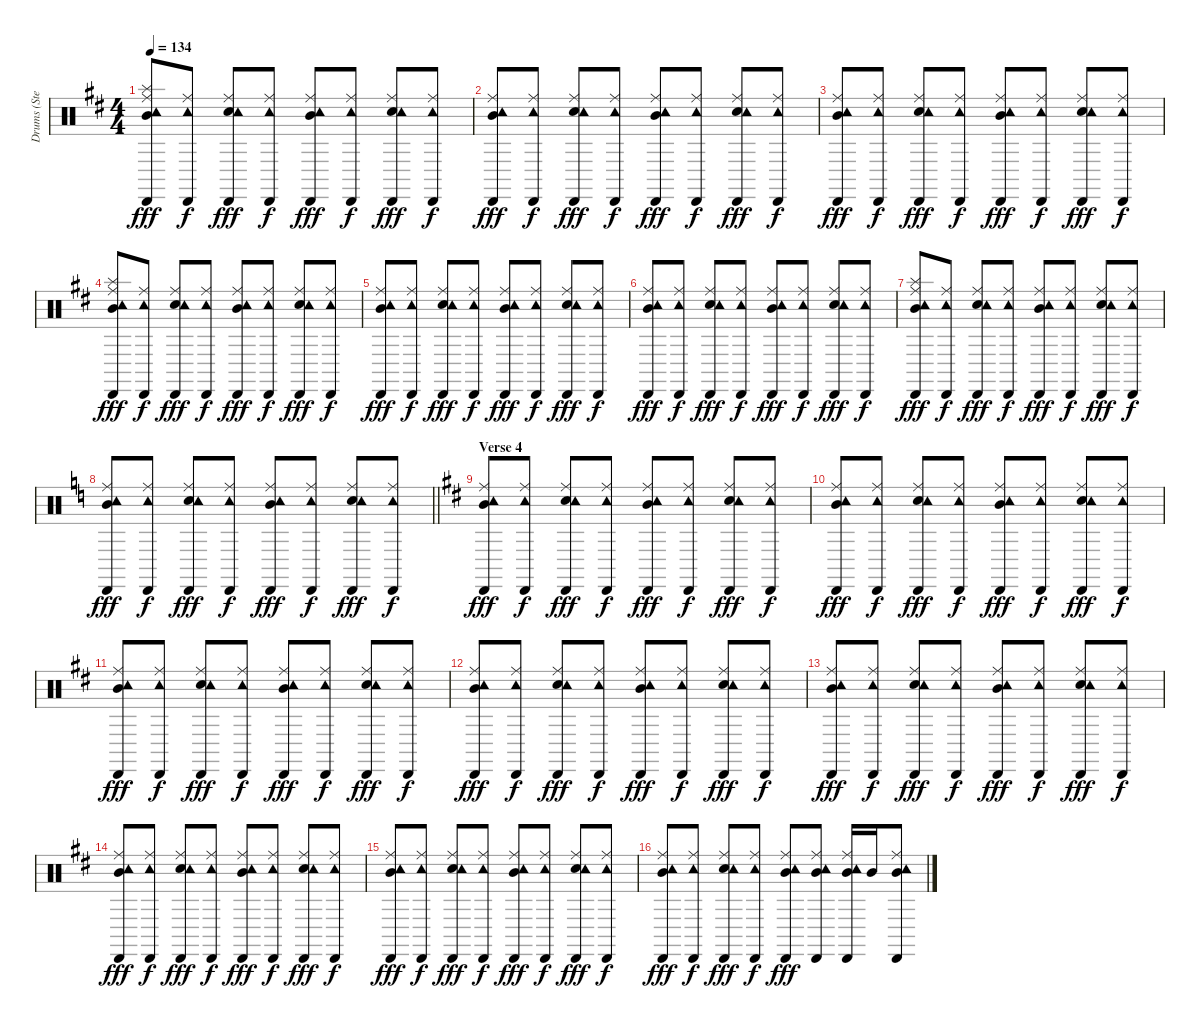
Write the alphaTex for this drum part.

\track ("Drums (Steven)" "Drums (Ste") {instrument percussion}
\staff {score}
\articulation defaults
\ts (4 4)
\tempo 134
\clef neutral
\ks d
("Mid Tom (hit)" "Splash (hit)" "Ride (middle)" "Tambourine (hit)" "Cabasa (hit)").8{dy fff} ("Ride (middle)" "Tambourine (hit)" "Cabasa (hit)").8{dy f} ("Electric Snare (hit)" "Ride (middle)" "Tambourine (hit)" "Cabasa (hit)").8{dy fff} ("Ride (middle)" "Tambourine (hit)" "Cabasa (hit)").8{dy f} ("Mid Tom (hit)" "Ride (middle)" "Tambourine (hit)" "Cabasa (hit)").8{dy fff} ("Ride (middle)" "Tambourine (hit)" "Cabasa (hit)").8{dy f} ("Electric Snare (hit)" "Ride (middle)" "Tambourine (hit)" "Cabasa (hit)").8{dy fff} ("Ride (middle)" "Tambourine (hit)" "Cabasa (hit)").8{dy f} |
("Mid Tom (hit)" "Ride (middle)" "Tambourine (hit)" "Cabasa (hit)").8{dy fff} ("Ride (middle)" "Tambourine (hit)" "Cabasa (hit)").8{dy f} ("Electric Snare (hit)" "Ride (middle)" "Tambourine (hit)" "Cabasa (hit)").8{dy fff} ("Ride (middle)" "Tambourine (hit)" "Cabasa (hit)").8{dy f} ("Mid Tom (hit)" "Ride (middle)" "Tambourine (hit)" "Cabasa (hit)").8{dy fff} ("Ride (middle)" "Tambourine (hit)" "Cabasa (hit)").8{dy f} ("Electric Snare (hit)" "Ride (middle)" "Tambourine (hit)" "Cabasa (hit)").8{dy fff} ("Ride (middle)" "Tambourine (hit)" "Cabasa (hit)").8{dy f} |
("Mid Tom (hit)" "Ride (middle)" "Tambourine (hit)" "Cabasa (hit)").8{dy fff} ("Ride (middle)" "Tambourine (hit)" "Cabasa (hit)").8{dy f} ("Electric Snare (hit)" "Ride (middle)" "Tambourine (hit)" "Cabasa (hit)").8{dy fff} ("Ride (middle)" "Tambourine (hit)" "Cabasa (hit)").8{dy f} ("Mid Tom (hit)" "Ride (middle)" "Tambourine (hit)" "Cabasa (hit)").8{dy fff} ("Ride (middle)" "Tambourine (hit)" "Cabasa (hit)").8{dy f} ("Electric Snare (hit)" "Ride (middle)" "Tambourine (hit)" "Cabasa (hit)").8{dy fff} ("Ride (middle)" "Tambourine (hit)" "Cabasa (hit)").8{dy f} |
("Mid Tom (hit)" "Splash (hit)" "Ride (middle)" "Tambourine (hit)" "Cabasa (hit)").8{dy fff} ("Ride (middle)" "Tambourine (hit)" "Cabasa (hit)").8{dy f} ("Electric Snare (hit)" "Ride (middle)" "Tambourine (hit)" "Cabasa (hit)").8{dy fff} ("Ride (middle)" "Tambourine (hit)" "Cabasa (hit)").8{dy f} ("Mid Tom (hit)" "Ride (middle)" "Tambourine (hit)" "Cabasa (hit)").8{dy fff} ("Ride (middle)" "Tambourine (hit)" "Cabasa (hit)").8{dy f} ("Electric Snare (hit)" "Ride (middle)" "Tambourine (hit)" "Cabasa (hit)").8{dy fff} ("Ride (middle)" "Tambourine (hit)" "Cabasa (hit)").8{dy f} |
("Mid Tom (hit)" "Ride (middle)" "Tambourine (hit)" "Cabasa (hit)").8{dy fff} ("Ride (middle)" "Tambourine (hit)" "Cabasa (hit)").8{dy f} ("Electric Snare (hit)" "Ride (middle)" "Tambourine (hit)" "Cabasa (hit)").8{dy fff} ("Ride (middle)" "Tambourine (hit)" "Cabasa (hit)").8{dy f} ("Mid Tom (hit)" "Ride (middle)" "Tambourine (hit)" "Cabasa (hit)").8{dy fff} ("Ride (middle)" "Tambourine (hit)" "Cabasa (hit)").8{dy f} ("Electric Snare (hit)" "Ride (middle)" "Tambourine (hit)" "Cabasa (hit)").8{dy fff} ("Ride (middle)" "Tambourine (hit)" "Cabasa (hit)").8{dy f} |
("Mid Tom (hit)" "Ride (middle)" "Tambourine (hit)" "Cabasa (hit)").8{dy fff} ("Ride (middle)" "Tambourine (hit)" "Cabasa (hit)").8{dy f} ("Electric Snare (hit)" "Ride (middle)" "Tambourine (hit)" "Cabasa (hit)").8{dy fff} ("Ride (middle)" "Tambourine (hit)" "Cabasa (hit)").8{dy f} ("Mid Tom (hit)" "Ride (middle)" "Tambourine (hit)" "Cabasa (hit)").8{dy fff} ("Ride (middle)" "Tambourine (hit)" "Cabasa (hit)").8{dy f} ("Electric Snare (hit)" "Ride (middle)" "Tambourine (hit)" "Cabasa (hit)").8{dy fff} ("Ride (middle)" "Tambourine (hit)" "Cabasa (hit)").8{dy f} |
("Mid Tom (hit)" "Splash (hit)" "Ride (middle)" "Tambourine (hit)" "Cabasa (hit)").8{dy fff} ("Ride (middle)" "Tambourine (hit)" "Cabasa (hit)").8{dy f} ("Electric Snare (hit)" "Ride (middle)" "Tambourine (hit)" "Cabasa (hit)").8{dy fff} ("Ride (middle)" "Tambourine (hit)" "Cabasa (hit)").8{dy f} ("Mid Tom (hit)" "Ride (middle)" "Tambourine (hit)" "Cabasa (hit)").8{dy fff} ("Ride (middle)" "Tambourine (hit)" "Cabasa (hit)").8{dy f} ("Electric Snare (hit)" "Ride (middle)" "Tambourine (hit)" "Cabasa (hit)").8{dy fff} ("Ride (middle)" "Tambourine (hit)" "Cabasa (hit)").8{dy f} |
\barLineRight lightlight
\ks c
("Mid Tom (hit)" "Ride (middle)" "Tambourine (hit)" "Cabasa (hit)").8{dy fff} ("Ride (middle)" "Tambourine (hit)" "Cabasa (hit)").8{dy f} ("Electric Snare (hit)" "Ride (middle)" "Tambourine (hit)" "Cabasa (hit)").8{dy fff} ("Ride (middle)" "Tambourine (hit)" "Cabasa (hit)").8{dy f} ("Mid Tom (hit)" "Ride (middle)" "Tambourine (hit)" "Cabasa (hit)").8{dy fff} ("Ride (middle)" "Tambourine (hit)" "Cabasa (hit)").8{dy f} ("Electric Snare (hit)" "Ride (middle)" "Tambourine (hit)" "Cabasa (hit)").8{dy fff} ("Ride (middle)" "Tambourine (hit)" "Cabasa (hit)").8{dy f} |
\section ("" "Verse 4")
\ks d
("Mid Tom (hit)" "Ride (middle)" "Tambourine (hit)" "Cabasa (hit)").8{dy fff} ("Ride (middle)" "Tambourine (hit)" "Cabasa (hit)").8{dy f} ("Electric Snare (hit)" "Ride (middle)" "Tambourine (hit)" "Cabasa (hit)").8{dy fff} ("Ride (middle)" "Tambourine (hit)" "Cabasa (hit)").8{dy f} ("Mid Tom (hit)" "Ride (middle)" "Tambourine (hit)" "Cabasa (hit)").8{dy fff} ("Ride (middle)" "Tambourine (hit)" "Cabasa (hit)").8{dy f} ("Electric Snare (hit)" "Ride (middle)" "Tambourine (hit)" "Cabasa (hit)").8{dy fff} ("Ride (middle)" "Tambourine (hit)" "Cabasa (hit)").8{dy f} |
("Mid Tom (hit)" "Ride (middle)" "Tambourine (hit)" "Cabasa (hit)").8{dy fff} ("Ride (middle)" "Tambourine (hit)" "Cabasa (hit)").8{dy f} ("Electric Snare (hit)" "Ride (middle)" "Tambourine (hit)" "Cabasa (hit)").8{dy fff} ("Ride (middle)" "Tambourine (hit)" "Cabasa (hit)").8{dy f} ("Mid Tom (hit)" "Ride (middle)" "Tambourine (hit)" "Cabasa (hit)").8{dy fff} ("Ride (middle)" "Tambourine (hit)" "Cabasa (hit)").8{dy f} ("Electric Snare (hit)" "Ride (middle)" "Tambourine (hit)" "Cabasa (hit)").8{dy fff} ("Ride (middle)" "Tambourine (hit)" "Cabasa (hit)").8{dy f} |
("Mid Tom (hit)" "Ride (middle)" "Tambourine (hit)" "Cabasa (hit)").8{dy fff} ("Ride (middle)" "Tambourine (hit)" "Cabasa (hit)").8{dy f} ("Electric Snare (hit)" "Ride (middle)" "Tambourine (hit)" "Cabasa (hit)").8{dy fff} ("Ride (middle)" "Tambourine (hit)" "Cabasa (hit)").8{dy f} ("Mid Tom (hit)" "Ride (middle)" "Tambourine (hit)" "Cabasa (hit)").8{dy fff} ("Ride (middle)" "Tambourine (hit)" "Cabasa (hit)").8{dy f} ("Electric Snare (hit)" "Ride (middle)" "Tambourine (hit)" "Cabasa (hit)").8{dy fff} ("Ride (middle)" "Tambourine (hit)" "Cabasa (hit)").8{dy f} |
("Mid Tom (hit)" "Ride (middle)" "Tambourine (hit)" "Cabasa (hit)").8{dy fff} ("Ride (middle)" "Tambourine (hit)" "Cabasa (hit)").8{dy f} ("Electric Snare (hit)" "Ride (middle)" "Tambourine (hit)" "Cabasa (hit)").8{dy fff} ("Ride (middle)" "Tambourine (hit)" "Cabasa (hit)").8{dy f} ("Mid Tom (hit)" "Ride (middle)" "Tambourine (hit)" "Cabasa (hit)").8{dy fff} ("Ride (middle)" "Tambourine (hit)" "Cabasa (hit)").8{dy f} ("Electric Snare (hit)" "Ride (middle)" "Tambourine (hit)" "Cabasa (hit)").8{dy fff} ("Ride (middle)" "Tambourine (hit)" "Cabasa (hit)").8{dy f} |
("Mid Tom (hit)" "Ride (middle)" "Tambourine (hit)" "Cabasa (hit)").8{dy fff} ("Ride (middle)" "Tambourine (hit)" "Cabasa (hit)").8{dy f} ("Electric Snare (hit)" "Ride (middle)" "Tambourine (hit)" "Cabasa (hit)").8{dy fff} ("Ride (middle)" "Tambourine (hit)" "Cabasa (hit)").8{dy f} ("Mid Tom (hit)" "Ride (middle)" "Tambourine (hit)" "Cabasa (hit)").8{dy fff} ("Ride (middle)" "Tambourine (hit)" "Cabasa (hit)").8{dy f} ("Electric Snare (hit)" "Ride (middle)" "Tambourine (hit)" "Cabasa (hit)").8{dy fff} ("Ride (middle)" "Tambourine (hit)" "Cabasa (hit)").8{dy f} |
("Mid Tom (hit)" "Ride (middle)" "Tambourine (hit)" "Cabasa (hit)").8{dy fff} ("Ride (middle)" "Tambourine (hit)" "Cabasa (hit)").8{dy f} ("Electric Snare (hit)" "Ride (middle)" "Tambourine (hit)" "Cabasa (hit)").8{dy fff} ("Ride (middle)" "Tambourine (hit)" "Cabasa (hit)").8{dy f} ("Mid Tom (hit)" "Ride (middle)" "Tambourine (hit)" "Cabasa (hit)").8{dy fff} ("Ride (middle)" "Tambourine (hit)" "Cabasa (hit)").8{dy f} ("Electric Snare (hit)" "Ride (middle)" "Tambourine (hit)" "Cabasa (hit)").8{dy fff} ("Ride (middle)" "Tambourine (hit)" "Cabasa (hit)").8{dy f} |
("Mid Tom (hit)" "Ride (middle)" "Tambourine (hit)" "Cabasa (hit)").8{dy fff} ("Ride (middle)" "Tambourine (hit)" "Cabasa (hit)").8{dy f} ("Electric Snare (hit)" "Ride (middle)" "Tambourine (hit)" "Cabasa (hit)").8{dy fff} ("Ride (middle)" "Tambourine (hit)" "Cabasa (hit)").8{dy f} ("Mid Tom (hit)" "Ride (middle)" "Tambourine (hit)" "Cabasa (hit)").8{dy fff} ("Ride (middle)" "Tambourine (hit)" "Cabasa (hit)").8{dy f} ("Electric Snare (hit)" "Ride (middle)" "Tambourine (hit)" "Cabasa (hit)").8{dy fff} ("Ride (middle)" "Tambourine (hit)" "Cabasa (hit)").8{dy f} |
("Mid Tom (hit)" "Ride (middle)" "Tambourine (hit)" "Cabasa (hit)").8{dy fff} ("Ride (middle)" "Tambourine (hit)" "Cabasa (hit)").8{dy f} ("Electric Snare (hit)" "Ride (middle)" "Tambourine (hit)" "Cabasa (hit)").8{dy fff} ("Ride (middle)" "Tambourine (hit)" "Cabasa (hit)").8{dy f} ("Mid Tom (hit)" "Ride (middle)" "Tambourine (hit)" "Cabasa (hit)").8{dy fff} ("Mid Tom (hit)" "Ride (middle)" "Tambourine (hit)" "Cabasa (hit)").8 ("Mid Tom (hit)" "Ride (middle)" "Tambourine (hit)" "Cabasa (hit)").16 "Mid Tom (hit)".16 ("Mid Tom (hit)" "Ride (middle)" "Tambourine (hit)" "Cabasa (hit)").8
